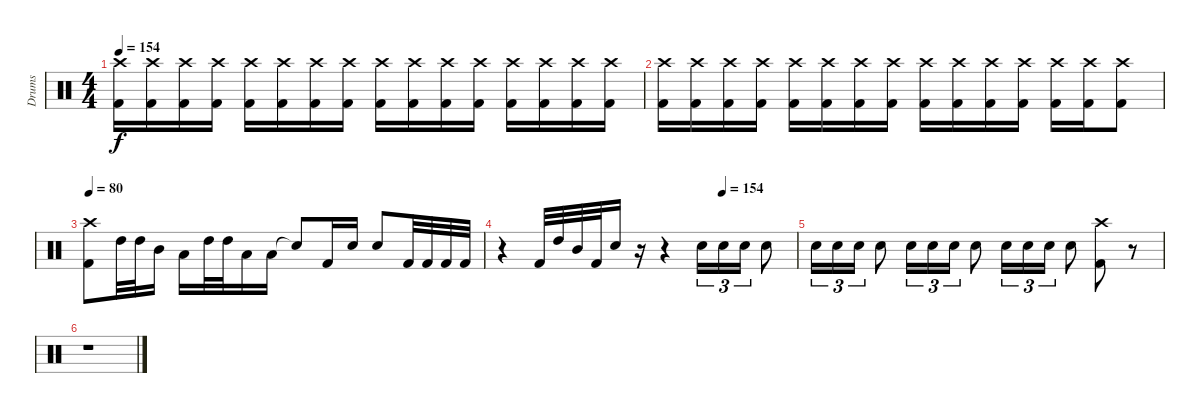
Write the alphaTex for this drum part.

\track ("Drums" "Drums") {instrument percussion}
\staff {score}
\articulation defaults
\ts (4 4)
\tempo 154
\clef neutral
\ks c
("Crash high (hit)" "Kick (hit) 2").16{dy f} ("Crash high (hit)" "Kick (hit) 2").16 ("Crash high (hit)" "Kick (hit) 2").16 ("Crash high (hit)" "Kick (hit) 2").16 ("Crash high (hit)" "Kick (hit) 2").16 ("Crash high (hit)" "Kick (hit) 2").16 ("Crash high (hit)" "Kick (hit) 2").16 ("Crash high (hit)" "Kick (hit) 2").16 ("Crash high (hit)" "Kick (hit) 2").16 ("Crash high (hit)" "Kick (hit) 2").16 ("Crash high (hit)" "Kick (hit) 2").16 ("Crash high (hit)" "Kick (hit) 2").16 ("Crash high (hit)" "Kick (hit) 2").16 ("Crash high (hit)" "Kick (hit) 2").16 ("Crash high (hit)" "Kick (hit) 2").16 ("Crash high (hit)" "Kick (hit) 2").16 |
("Crash high (hit)" "Kick (hit) 2").16 ("Crash high (hit)" "Kick (hit) 2").16 ("Crash high (hit)" "Kick (hit) 2").16 ("Crash high (hit)" "Kick (hit) 2").16 ("Crash high (hit)" "Kick (hit) 2").16 ("Crash high (hit)" "Kick (hit) 2").16 ("Crash high (hit)" "Kick (hit) 2").16 ("Crash high (hit)" "Kick (hit) 2").16 ("Crash high (hit)" "Kick (hit) 2").16 ("Crash high (hit)" "Kick (hit) 2").16 ("Crash high (hit)" "Kick (hit) 2").16 ("Crash high (hit)" "Kick (hit) 2").16 ("Crash high (hit)" "Kick (hit) 2").16 ("Crash high (hit)" "Kick (hit) 2").16 ("Crash high (hit)" "Kick (hit) 2").8 |
\tempo 80
("Crash high (hit)" "Kick (hit) 2").8 "High Tom (hit)".32 "High Tom (hit)".32 "Mid Tom (hit)".16 "Low Tom (hit)".16 "High Tom (hit)".32 "High Tom (hit)".32 "Low Tom (hit)".16 "Low Tom (hit)".16 "Snare (hit)"{t}.8 "Kick (hit) 2".16 "Electric Snare (hit)".16 "Electric Snare (hit)".8 "Kick (hit) 2".32 "Kick (hit) 2".32 "Kick (hit) 2".32 "Kick (hit) 2".32 |
\tempo (154 0.75)
r.4 "Kick (hit) 2".32 "High Tom (hit)".32 "Mid Tom (hit)".32 "Kick (hit) 2".32 "Electric Snare (hit)".16 r.16 r.4 "Snare (hit) 2".16{tu (3 2)} "Snare (hit) 2".16{tu (3 2)} "Snare (hit) 2".16{tu (3 2)} "Snare (hit) 2".8 |
"Snare (hit) 2".16{tu (3 2)} "Snare (hit) 2".16{tu (3 2)} "Snare (hit) 2".16{tu (3 2)} "Snare (hit) 2".8 "Snare (hit) 2".16{tu (3 2)} "Snare (hit) 2".16{tu (3 2)} "Snare (hit) 2".16{tu (3 2)} "Snare (hit) 2".8 "Snare (hit) 2".16{tu (3 2)} "Snare (hit) 2".16{tu (3 2)} "Snare (hit) 2".16{tu (3 2)} "Snare (hit) 2".8 ("Crash high (hit)" "Kick (hit) 2").8 r.8 |
r.1
